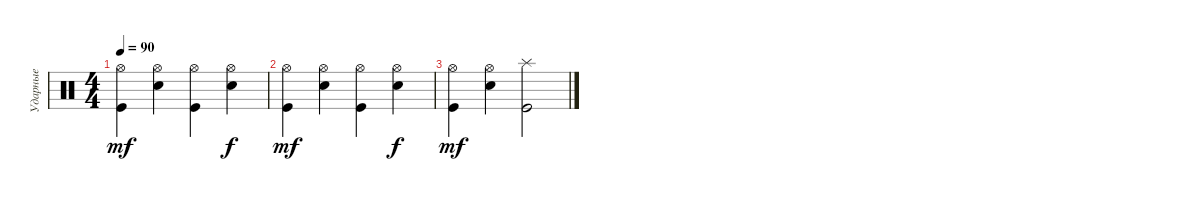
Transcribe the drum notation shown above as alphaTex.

\track ("Ударные" "Ударные") {instrument percussion}
\staff {score}
\articulation defaults
\ts (4 4)
\tempo 90
\clef neutral
\ks c
("Hi-Hat (open)" "Kick (hit)").4{dy mf} ("Hi-Hat (open)" "Electric Snare (hit)").4 ("Hi-Hat (open)" "Kick (hit)").4 ("Hi-Hat (open)" "Electric Snare (hit)").4{dy f} |
("Hi-Hat (open)" "Kick (hit)").4{dy mf} ("Hi-Hat (open)" "Electric Snare (hit)").4 ("Hi-Hat (open)" "Kick (hit)").4 ("Hi-Hat (open)" "Electric Snare (hit)").4{dy f} |
("Hi-Hat (open)" "Kick (hit)").4{dy mf} ("Hi-Hat (open)" "Electric Snare (hit)").4 ("Splash (hit)" "Kick (hit)").2
